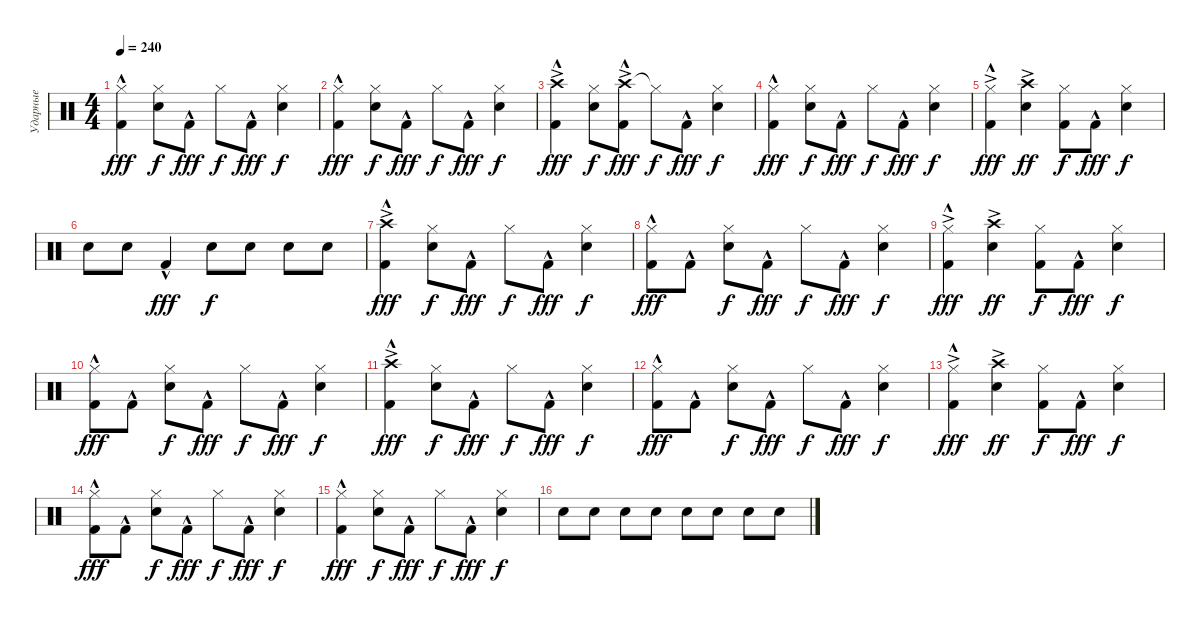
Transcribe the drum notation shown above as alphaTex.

\track ("Ударные" "Ударные") {instrument percussion}
\staff {score}
\articulation defaults
\ts (4 4)
\tempo 240
\clef neutral
\ks c
("Hi-Hat (closed)" "Kick (hit) 2"{hac}).4{dy fff} ("Hi-Hat (closed)" "Snare (hit) 2").8{dy f} "Kick (hit) 2"{hac}.8{dy fff} "Hi-Hat (closed)".8{dy f} "Kick (hit) 2"{hac}.8{dy fff} ("Hi-Hat (closed)" "Snare (hit) 2").4{dy f} |
("Hi-Hat (closed)" "Kick (hit) 2"{hac}).4{dy fff} ("Hi-Hat (closed)" "Snare (hit) 2").8{dy f} "Kick (hit) 2"{hac}.8{dy fff} "Hi-Hat (closed)".8{dy f} "Kick (hit) 2"{hac}.8{dy fff} ("Hi-Hat (closed)" "Snare (hit) 2").4{dy f} |
("Crash high (hit)"{ac} "Kick (hit) 2"{hac}).4{dy fff} ("Hi-Hat (closed)" "Snare (hit) 2").8{dy f} ("Crash high (hit)"{ac} "Kick (hit) 2"{hac}).8{dy fff} "Hi-Hat (closed)"{t}.8{dy f} "Kick (hit) 2"{hac}.8{dy fff} ("Hi-Hat (closed)" "Snare (hit) 2").4{dy f} |
("Hi-Hat (closed)" "Kick (hit) 2"{hac}).4{dy fff} ("Hi-Hat (closed)" "Snare (hit) 2").8{dy f} "Kick (hit) 2"{hac}.8{dy fff} "Hi-Hat (closed)".8{dy f} "Kick (hit) 2"{hac}.8{dy fff} ("Hi-Hat (closed)" "Snare (hit) 2").4{dy f} |
("Hi-Hat (closed)"{ac} "Kick (hit) 2"{hac}).4{dy fff} ("Crash high (hit)"{ac} "Snare (hit) 2").4{dy ff} ("Hi-Hat (closed)" "Kick (hit) 2").8{dy f} "Kick (hit) 2"{hac}.8{dy fff} ("Hi-Hat (closed)" "Snare (hit) 2").4{dy f} |
"Snare (hit) 2".8 "Snare (hit) 2".8 "Kick (hit) 2"{hac}.4{dy fff} "Snare (hit) 2".8{dy f} "Snare (hit) 2".8 "Snare (hit) 2".8 "Snare (hit) 2".8 |
("Crash high (hit)"{ac} "Kick (hit) 2"{hac}).4{dy fff} ("Hi-Hat (closed)" "Snare (hit) 2").8{dy f} "Kick (hit) 2"{hac}.8{dy fff} "Hi-Hat (closed)".8{dy f} "Kick (hit) 2"{hac}.8{dy fff} ("Hi-Hat (closed)" "Snare (hit) 2").4{dy f} |
("Hi-Hat (closed)" "Kick (hit) 2"{hac}).8{dy fff} "Kick (hit) 2"{hac}.8 ("Hi-Hat (closed)" "Snare (hit) 2").8{dy f} "Kick (hit) 2"{hac}.8{dy fff} "Hi-Hat (closed)".8{dy f} "Kick (hit) 2"{hac}.8{dy fff} ("Hi-Hat (closed)" "Snare (hit) 2").4{dy f} |
("Hi-Hat (closed)"{ac} "Kick (hit) 2"{hac}).4{dy fff} ("Crash high (hit)"{ac} "Snare (hit) 2").4{dy ff} ("Hi-Hat (closed)" "Kick (hit) 2").8{dy f} "Kick (hit) 2"{hac}.8{dy fff} ("Hi-Hat (closed)" "Snare (hit) 2").4{dy f} |
("Hi-Hat (closed)" "Kick (hit) 2"{hac}).8{dy fff} "Kick (hit) 2"{hac}.8 ("Hi-Hat (closed)" "Snare (hit) 2").8{dy f} "Kick (hit) 2"{hac}.8{dy fff} "Hi-Hat (closed)".8{dy f} "Kick (hit) 2"{hac}.8{dy fff} ("Hi-Hat (closed)" "Snare (hit) 2").4{dy f} |
("Crash high (hit)"{ac} "Kick (hit) 2"{hac}).4{dy fff} ("Hi-Hat (closed)" "Snare (hit) 2").8{dy f} "Kick (hit) 2"{hac}.8{dy fff} "Hi-Hat (closed)".8{dy f} "Kick (hit) 2"{hac}.8{dy fff} ("Hi-Hat (closed)" "Snare (hit) 2").4{dy f} |
("Hi-Hat (closed)" "Kick (hit) 2"{hac}).8{dy fff} "Kick (hit) 2"{hac}.8 ("Hi-Hat (closed)" "Snare (hit) 2").8{dy f} "Kick (hit) 2"{hac}.8{dy fff} "Hi-Hat (closed)".8{dy f} "Kick (hit) 2"{hac}.8{dy fff} ("Hi-Hat (closed)" "Snare (hit) 2").4{dy f} |
("Hi-Hat (closed)"{ac} "Kick (hit) 2"{hac}).4{dy fff} ("Crash high (hit)"{ac} "Snare (hit) 2").4{dy ff} ("Hi-Hat (closed)" "Kick (hit) 2").8{dy f} "Kick (hit) 2"{hac}.8{dy fff} ("Hi-Hat (closed)" "Snare (hit) 2").4{dy f} |
("Hi-Hat (closed)" "Kick (hit) 2"{hac}).8{dy fff} "Kick (hit) 2"{hac}.8 ("Hi-Hat (closed)" "Snare (hit) 2").8{dy f} "Kick (hit) 2"{hac}.8{dy fff} "Hi-Hat (closed)".8{dy f} "Kick (hit) 2"{hac}.8{dy fff} ("Hi-Hat (closed)" "Snare (hit) 2").4{dy f} |
("Hi-Hat (closed)" "Kick (hit) 2"{hac}).4{dy fff} ("Hi-Hat (closed)" "Snare (hit) 2").8{dy f} "Kick (hit) 2"{hac}.8{dy fff} "Hi-Hat (closed)".8{dy f} "Kick (hit) 2"{hac}.8{dy fff} ("Hi-Hat (closed)" "Snare (hit) 2").4{dy f} |
"Snare (hit) 2".8 "Snare (hit) 2".8 "Snare (hit) 2".8 "Snare (hit) 2".8 "Snare (hit) 2".8 "Snare (hit) 2".8 "Snare (hit) 2".8 "Snare (hit) 2".8
